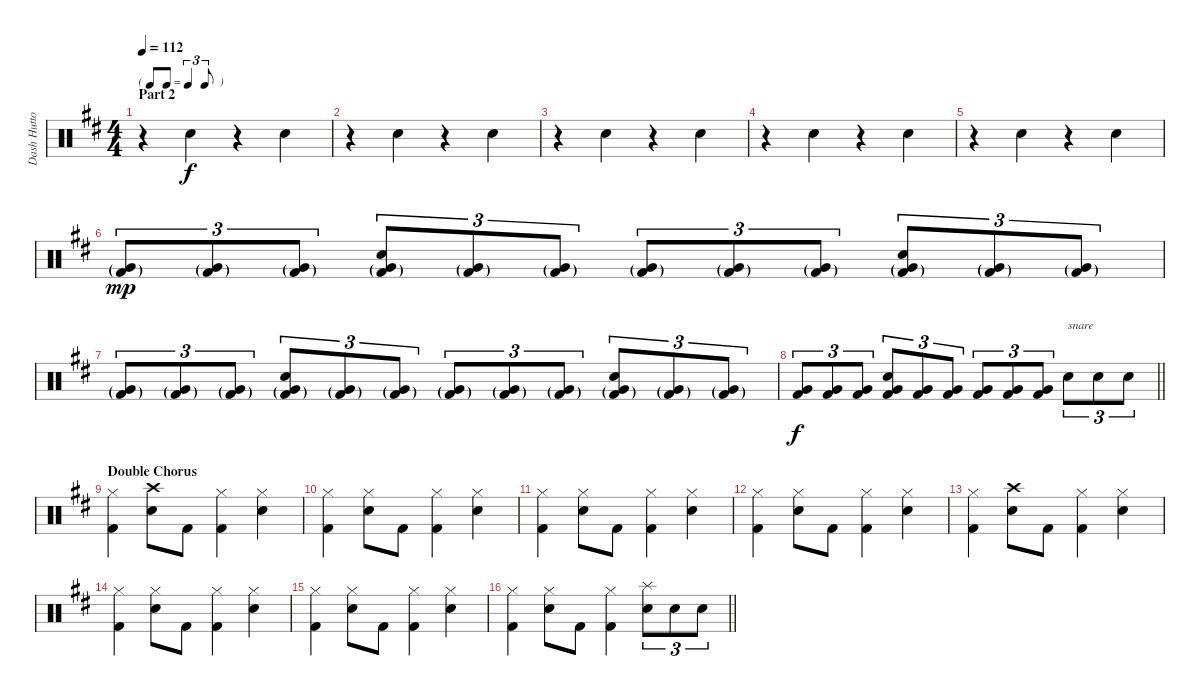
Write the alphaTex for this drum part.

\track ("Dash Hutton" "Dash Hutto") {instrument percussion}
\staff {score}
\articulation defaults
\ts (4 4)
\tf triplet8th
\section ("" "Part 2")
\tempo 112
\clef neutral
\ks d
r.4{dy f} "Hand Clap (hit)".4 r.4 "Hand Clap (hit)".4 |
r.4 "Hand Clap (hit)".4 r.4 "Hand Clap (hit)".4 |
r.4 "Hand Clap (hit)".4 r.4 "Hand Clap (hit)".4 |
r.4 "Hand Clap (hit)".4 r.4 "Hand Clap (hit)".4 |
r.4 "Hand Clap (hit)".4 r.4 "Hand Clap (hit)".4 |
("Very Low Tom (hit)"{g} "Kick (hit) 2"{g}).8{tu (3 2) dy mp} ("Very Low Tom (hit)"{g} "Kick (hit) 2"{g}).8{tu (3 2)} ("Very Low Tom (hit)"{g} "Kick (hit) 2"{g}).8{tu (3 2)} ("Very Low Tom (hit)"{g} "Hand Clap (hit)" "Kick (hit) 2"{g}).8{tu (3 2)} ("Very Low Tom (hit)"{g} "Kick (hit) 2"{g}).8{tu (3 2)} ("Very Low Tom (hit)"{g} "Kick (hit) 2"{g}).8{tu (3 2)} ("Very Low Tom (hit)"{g} "Kick (hit) 2"{g}).8{tu (3 2)} ("Very Low Tom (hit)"{g} "Kick (hit) 2"{g}).8{tu (3 2)} ("Very Low Tom (hit)"{g} "Kick (hit) 2"{g}).8{tu (3 2)} ("Very Low Tom (hit)"{g} "Hand Clap (hit)" "Kick (hit) 2"{g}).8{tu (3 2)} ("Very Low Tom (hit)"{g} "Kick (hit) 2"{g}).8{tu (3 2)} ("Very Low Tom (hit)"{g} "Kick (hit) 2"{g}).8{tu (3 2)} |
("Very Low Tom (hit)"{g} "Kick (hit) 2"{g}).8{tu (3 2)} ("Very Low Tom (hit)"{g} "Kick (hit) 2"{g}).8{tu (3 2)} ("Very Low Tom (hit)"{g} "Kick (hit) 2"{g}).8{tu (3 2)} ("Very Low Tom (hit)"{g} "Hand Clap (hit)" "Kick (hit) 2"{g}).8{tu (3 2)} ("Very Low Tom (hit)"{g} "Kick (hit) 2"{g}).8{tu (3 2)} ("Very Low Tom (hit)"{g} "Kick (hit) 2"{g}).8{tu (3 2)} ("Very Low Tom (hit)"{g} "Kick (hit) 2"{g}).8{tu (3 2)} ("Very Low Tom (hit)"{g} "Kick (hit) 2"{g}).8{tu (3 2)} ("Very Low Tom (hit)"{g} "Kick (hit) 2"{g}).8{tu (3 2)} ("Very Low Tom (hit)"{g} "Hand Clap (hit)" "Kick (hit) 2"{g}).8{tu (3 2)} ("Very Low Tom (hit)"{g} "Kick (hit) 2"{g}).8{tu (3 2)} ("Very Low Tom (hit)"{g} "Kick (hit) 2"{g}).8{tu (3 2)} |
\barLineRight lightlight
("Very Low Tom (hit)" "Kick (hit) 2").8{tu (3 2) dy f} ("Very Low Tom (hit)" "Kick (hit) 2").8{tu (3 2)} ("Very Low Tom (hit)" "Kick (hit) 2").8{tu (3 2)} ("Very Low Tom (hit)" "Hand Clap (hit)" "Kick (hit) 2").8{tu (3 2)} ("Very Low Tom (hit)" "Kick (hit) 2").8{tu (3 2)} ("Very Low Tom (hit)" "Kick (hit) 2").8{tu (3 2)} ("Very Low Tom (hit)" "Kick (hit) 2").8{tu (3 2)} ("Very Low Tom (hit)" "Kick (hit) 2").8{tu (3 2)} ("Very Low Tom (hit)" "Kick (hit) 2").8{tu (3 2)} "Snare (hit) 2".8{tu (3 2) txt "snare"} "Snare (hit) 2".8{tu (3 2)} "Snare (hit) 2".8{tu (3 2)} |
\section ("" "Double Chorus")
("Hi-Hat (closed)" "Kick (hit) 2").4 ("Crash high (hit)" "Snare (hit) 2").8 "Kick (hit) 2".8 ("Hi-Hat (closed)" "Kick (hit) 2").4 ("Hi-Hat (closed)" "Snare (hit) 2").4 |
("Hi-Hat (closed)" "Kick (hit) 2").4 ("Hi-Hat (closed)" "Snare (hit) 2").8 "Kick (hit) 2".8 ("Hi-Hat (closed)" "Kick (hit) 2").4 ("Hi-Hat (closed)" "Snare (hit) 2").4 |
("Hi-Hat (closed)" "Kick (hit) 2").4 ("Hi-Hat (closed)" "Snare (hit) 2").8 "Kick (hit) 2".8 ("Hi-Hat (closed)" "Kick (hit) 2").4 ("Hi-Hat (closed)" "Snare (hit) 2").4 |
("Hi-Hat (closed)" "Kick (hit) 2").4 ("Hi-Hat (closed)" "Snare (hit) 2").8 "Kick (hit) 2".8 ("Hi-Hat (closed)" "Kick (hit) 2").4 ("Hi-Hat (closed)" "Snare (hit) 2").4 |
("Hi-Hat (closed)" "Kick (hit) 2").4 ("Crash high (hit)" "Snare (hit) 2").8 "Kick (hit) 2".8 ("Hi-Hat (closed)" "Kick (hit) 2").4 ("Hi-Hat (closed)" "Snare (hit) 2").4 |
("Hi-Hat (closed)" "Kick (hit) 2").4 ("Hi-Hat (closed)" "Snare (hit) 2").8 "Kick (hit) 2".8 ("Hi-Hat (closed)" "Kick (hit) 2").4 ("Hi-Hat (closed)" "Snare (hit) 2").4 |
("Hi-Hat (closed)" "Kick (hit) 2").4 ("Hi-Hat (closed)" "Snare (hit) 2").8 "Kick (hit) 2".8 ("Hi-Hat (closed)" "Kick (hit) 2").4 ("Hi-Hat (closed)" "Snare (hit) 2").4 |
\barLineRight lightlight
("Hi-Hat (closed)" "Kick (hit) 2").4 ("Hi-Hat (closed)" "Snare (hit) 2").8 "Kick (hit) 2".8 ("Hi-Hat (closed)" "Kick (hit) 2").4 ("Splash (hit)" "Snare (hit) 2").8{tu (3 2)} "Snare (hit) 2".8{tu (3 2)} "Snare (hit) 2".8{tu (3 2)}
